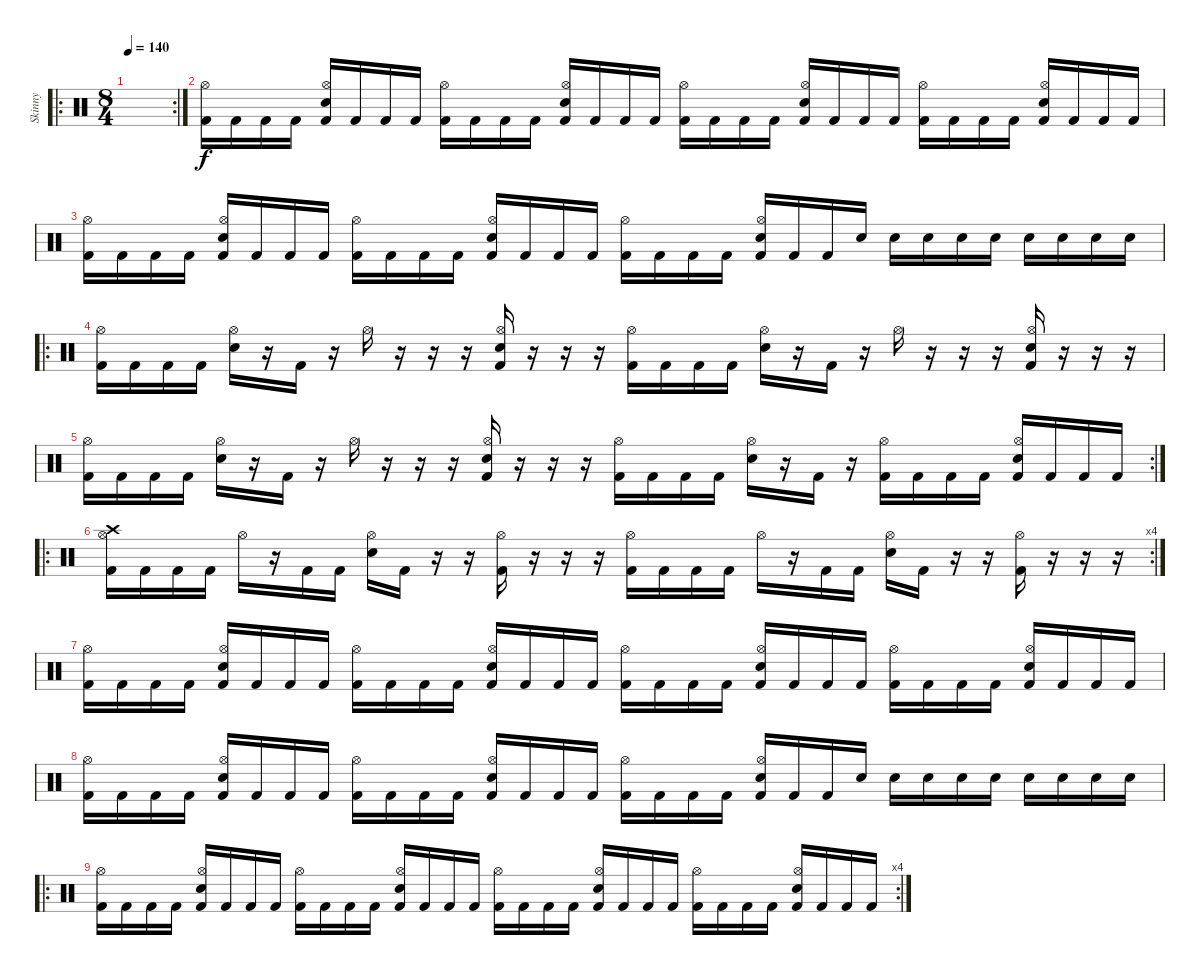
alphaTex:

\track ("Skinny" "Skinny") {instrument percussion}
\staff {score}
\articulation defaults
\ro
\rc 2
\ts (8 4)
\tempo 140
\clef neutral
\ks c
|
("Kick (hit) 2" "Hi-Hat (open)").16 "Kick (hit) 2".16 "Kick (hit) 2".16 "Kick (hit) 2".16 ("Kick (hit) 2" "Snare (hit) 2" "Hi-Hat (open)").16 "Kick (hit) 2".16 "Kick (hit) 2".16 "Kick (hit) 2".16 ("Kick (hit) 2" "Hi-Hat (open)").16 "Kick (hit) 2".16 "Kick (hit) 2".16 "Kick (hit) 2".16 ("Kick (hit) 2" "Snare (hit) 2" "Hi-Hat (open)").16 "Kick (hit) 2".16 "Kick (hit) 2".16 "Kick (hit) 2".16 ("Kick (hit) 2" "Hi-Hat (open)").16 "Kick (hit) 2".16 "Kick (hit) 2".16 "Kick (hit) 2".16 ("Kick (hit) 2" "Snare (hit) 2" "Hi-Hat (open)").16 "Kick (hit) 2".16 "Kick (hit) 2".16 "Kick (hit) 2".16 ("Kick (hit) 2" "Hi-Hat (open)").16 "Kick (hit) 2".16 "Kick (hit) 2".16 "Kick (hit) 2".16 ("Kick (hit) 2" "Snare (hit) 2" "Hi-Hat (open)").16 "Kick (hit) 2".16 "Kick (hit) 2".16 "Kick (hit) 2".16 |
("Kick (hit) 2" "Hi-Hat (open)").16 "Kick (hit) 2".16 "Kick (hit) 2".16 "Kick (hit) 2".16 ("Kick (hit) 2" "Snare (hit) 2" "Hi-Hat (open)").16 "Kick (hit) 2".16 "Kick (hit) 2".16 "Kick (hit) 2".16 ("Kick (hit) 2" "Hi-Hat (open)").16 "Kick (hit) 2".16 "Kick (hit) 2".16 "Kick (hit) 2".16 ("Kick (hit) 2" "Snare (hit) 2" "Hi-Hat (open)").16 "Kick (hit) 2".16 "Kick (hit) 2".16 "Kick (hit) 2".16 ("Kick (hit) 2" "Hi-Hat (open)").16 "Kick (hit) 2".16 "Kick (hit) 2".16 "Kick (hit) 2".16 ("Kick (hit) 2" "Snare (hit) 2" "Hi-Hat (open)").16 "Kick (hit) 2".16 "Kick (hit) 2".16 "Snare (hit) 2".16 "Snare (hit) 2".16 "Snare (hit) 2".16 "Snare (hit) 2".16 "Snare (hit) 2".16 "Snare (hit) 2".16 "Snare (hit) 2".16 "Snare (hit) 2".16 "Snare (hit) 2".16 |
\ro
("Kick (hit) 2" "Hi-Hat (open)").16 "Kick (hit) 2".16 "Kick (hit) 2".16 "Kick (hit) 2".16 ("Snare (hit) 2" "Hi-Hat (open)").16 r.16 "Kick (hit) 2".16 r.16 "Hi-Hat (open)".16 r.16 r.16 r.16 ("Kick (hit) 2" "Snare (hit) 2" "Hi-Hat (open)").16 r.16 r.16 r.16 ("Kick (hit) 2" "Hi-Hat (open)").16 "Kick (hit) 2".16 "Kick (hit) 2".16 "Kick (hit) 2".16 ("Snare (hit) 2" "Hi-Hat (open)").16 r.16 "Kick (hit) 2".16 r.16 "Hi-Hat (open)".16 r.16 r.16 r.16 ("Kick (hit) 2" "Snare (hit) 2" "Hi-Hat (open)").16 r.16 r.16 r.16 |
\rc 2
("Kick (hit) 2" "Hi-Hat (open)").16 "Kick (hit) 2".16 "Kick (hit) 2".16 "Kick (hit) 2".16 ("Snare (hit) 2" "Hi-Hat (open)").16 r.16 "Kick (hit) 2".16 r.16 "Hi-Hat (open)".16 r.16 r.16 r.16 ("Kick (hit) 2" "Snare (hit) 2" "Hi-Hat (open)").16 r.16 r.16 r.16 ("Kick (hit) 2" "Hi-Hat (open)").16 "Kick (hit) 2".16 "Kick (hit) 2".16 "Kick (hit) 2".16 ("Snare (hit) 2" "Hi-Hat (open)").16 r.16 "Kick (hit) 2".16 r.16 ("Kick (hit) 2" "Hi-Hat (open)").16 "Kick (hit) 2".16 "Kick (hit) 2".16 "Kick (hit) 2".16 ("Kick (hit) 2" "Snare (hit) 2" "Hi-Hat (open)").16 "Kick (hit) 2".16 "Kick (hit) 2".16 "Kick (hit) 2".16 |
\ro
\rc 4
("Kick (hit) 2" "Crash high (hit)" "Hi-Hat (open)").16 "Kick (hit) 2".16 "Kick (hit) 2".16 "Kick (hit) 2".16 "Hi-Hat (open)".16 r.16 "Kick (hit) 2".16 "Kick (hit) 2".16 ("Snare (hit) 2" "Hi-Hat (open)").16 "Kick (hit) 2".16 r.16 r.16 ("Kick (hit) 2" "Hi-Hat (open)").16 r.16 r.16 r.16 ("Kick (hit) 2" "Hi-Hat (open)").16 "Kick (hit) 2".16 "Kick (hit) 2".16 "Kick (hit) 2".16 "Hi-Hat (open)".16 r.16 "Kick (hit) 2".16 "Kick (hit) 2".16 ("Snare (hit) 2" "Hi-Hat (open)").16 "Kick (hit) 2".16 r.16 r.16 ("Kick (hit) 2" "Hi-Hat (open)").16 r.16 r.16 r.16 |
("Kick (hit) 2" "Hi-Hat (open)").16 "Kick (hit) 2".16 "Kick (hit) 2".16 "Kick (hit) 2".16 ("Kick (hit) 2" "Snare (hit) 2" "Hi-Hat (open)").16 "Kick (hit) 2".16 "Kick (hit) 2".16 "Kick (hit) 2".16 ("Kick (hit) 2" "Hi-Hat (open)").16 "Kick (hit) 2".16 "Kick (hit) 2".16 "Kick (hit) 2".16 ("Kick (hit) 2" "Snare (hit) 2" "Hi-Hat (open)").16 "Kick (hit) 2".16 "Kick (hit) 2".16 "Kick (hit) 2".16 ("Kick (hit) 2" "Hi-Hat (open)").16 "Kick (hit) 2".16 "Kick (hit) 2".16 "Kick (hit) 2".16 ("Kick (hit) 2" "Snare (hit) 2" "Hi-Hat (open)").16 "Kick (hit) 2".16 "Kick (hit) 2".16 "Kick (hit) 2".16 ("Kick (hit) 2" "Hi-Hat (open)").16 "Kick (hit) 2".16 "Kick (hit) 2".16 "Kick (hit) 2".16 ("Kick (hit) 2" "Snare (hit) 2" "Hi-Hat (open)").16 "Kick (hit) 2".16 "Kick (hit) 2".16 "Kick (hit) 2".16 |
("Kick (hit) 2" "Hi-Hat (open)").16 "Kick (hit) 2".16 "Kick (hit) 2".16 "Kick (hit) 2".16 ("Kick (hit) 2" "Snare (hit) 2" "Hi-Hat (open)").16 "Kick (hit) 2".16 "Kick (hit) 2".16 "Kick (hit) 2".16 ("Kick (hit) 2" "Hi-Hat (open)").16 "Kick (hit) 2".16 "Kick (hit) 2".16 "Kick (hit) 2".16 ("Kick (hit) 2" "Snare (hit) 2" "Hi-Hat (open)").16 "Kick (hit) 2".16 "Kick (hit) 2".16 "Kick (hit) 2".16 ("Kick (hit) 2" "Hi-Hat (open)").16 "Kick (hit) 2".16 "Kick (hit) 2".16 "Kick (hit) 2".16 ("Kick (hit) 2" "Snare (hit) 2" "Hi-Hat (open)").16 "Kick (hit) 2".16 "Kick (hit) 2".16 "Snare (hit) 2".16 "Snare (hit) 2".16 "Snare (hit) 2".16 "Snare (hit) 2".16 "Snare (hit) 2".16 "Snare (hit) 2".16 "Snare (hit) 2".16 "Snare (hit) 2".16 "Snare (hit) 2".16 |
\ro
\rc 4
("Kick (hit) 2" "Hi-Hat (open)").16 "Kick (hit) 2".16 "Kick (hit) 2".16 "Kick (hit) 2".16 ("Kick (hit) 2" "Snare (hit) 2" "Hi-Hat (open)").16 "Kick (hit) 2".16 "Kick (hit) 2".16 "Kick (hit) 2".16 ("Kick (hit) 2" "Hi-Hat (open)").16 "Kick (hit) 2".16 "Kick (hit) 2".16 "Kick (hit) 2".16 ("Kick (hit) 2" "Snare (hit) 2" "Hi-Hat (open)").16 "Kick (hit) 2".16 "Kick (hit) 2".16 "Kick (hit) 2".16 ("Kick (hit) 2" "Hi-Hat (open)").16 "Kick (hit) 2".16 "Kick (hit) 2".16 "Kick (hit) 2".16 ("Kick (hit) 2" "Snare (hit) 2" "Hi-Hat (open)").16 "Kick (hit) 2".16 "Kick (hit) 2".16 "Kick (hit) 2".16 ("Kick (hit) 2" "Hi-Hat (open)").16 "Kick (hit) 2".16 "Kick (hit) 2".16 "Kick (hit) 2".16 ("Kick (hit) 2" "Snare (hit) 2" "Hi-Hat (open)").16 "Kick (hit) 2".16 "Kick (hit) 2".16 "Kick (hit) 2".16
